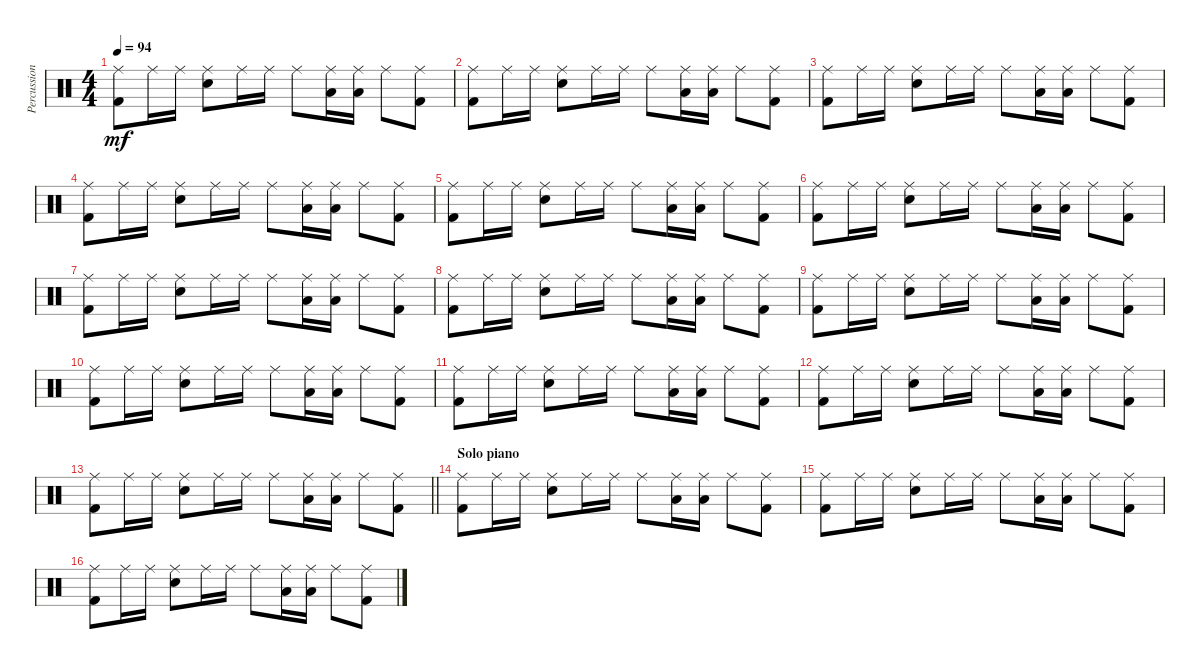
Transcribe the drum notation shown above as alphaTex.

\track ("Percussions" "Percussion") {instrument percussion}
\staff {score}
\articulation defaults
\ts (4 4)
\tempo 94
\clef neutral
\ks c
("Kick (hit) 2" "Ride (middle)").8{dy mf} "Ride (middle)".16 "Ride (middle)".16 ("Electric Snare (hit)" "Ride (middle)").8 "Ride (middle)".16 "Ride (middle)".16 "Ride (middle)".8 ("Low Tom (hit)" "Ride (middle)").16 ("Low Floor Tom (hit)" "Ride (middle)").16 "Ride (middle)".8 ("Kick (hit) 2" "Ride (middle)").8 |
("Kick (hit) 2" "Ride (middle)").8 "Ride (middle)".16 "Ride (middle)".16 ("Electric Snare (hit)" "Ride (middle)").8 "Ride (middle)".16 "Ride (middle)".16 "Ride (middle)".8 ("Low Tom (hit)" "Ride (middle)").16 ("Low Floor Tom (hit)" "Ride (middle)").16 "Ride (middle)".8 ("Kick (hit) 2" "Ride (middle)").8 |
("Kick (hit) 2" "Ride (middle)").8 "Ride (middle)".16 "Ride (middle)".16 ("Electric Snare (hit)" "Ride (middle)").8 "Ride (middle)".16 "Ride (middle)".16 "Ride (middle)".8 ("Low Tom (hit)" "Ride (middle)").16 ("Low Floor Tom (hit)" "Ride (middle)").16 "Ride (middle)".8 ("Kick (hit) 2" "Ride (middle)").8 |
("Kick (hit) 2" "Ride (middle)").8 "Ride (middle)".16 "Ride (middle)".16 ("Electric Snare (hit)" "Ride (middle)").8 "Ride (middle)".16 "Ride (middle)".16 "Ride (middle)".8 ("Low Tom (hit)" "Ride (middle)").16 ("Low Floor Tom (hit)" "Ride (middle)").16 "Ride (middle)".8 ("Kick (hit) 2" "Ride (middle)").8 |
("Kick (hit) 2" "Ride (middle)").8 "Ride (middle)".16 "Ride (middle)".16 ("Electric Snare (hit)" "Ride (middle)").8 "Ride (middle)".16 "Ride (middle)".16 "Ride (middle)".8 ("Low Tom (hit)" "Ride (middle)").16 ("Low Floor Tom (hit)" "Ride (middle)").16 "Ride (middle)".8 ("Kick (hit) 2" "Ride (middle)").8 |
("Kick (hit) 2" "Ride (middle)").8 "Ride (middle)".16 "Ride (middle)".16 ("Electric Snare (hit)" "Ride (middle)").8 "Ride (middle)".16 "Ride (middle)".16 "Ride (middle)".8 ("Low Tom (hit)" "Ride (middle)").16 ("Low Floor Tom (hit)" "Ride (middle)").16 "Ride (middle)".8 ("Kick (hit) 2" "Ride (middle)").8 |
("Kick (hit) 2" "Ride (middle)").8 "Ride (middle)".16 "Ride (middle)".16 ("Electric Snare (hit)" "Ride (middle)").8 "Ride (middle)".16 "Ride (middle)".16 "Ride (middle)".8 ("Low Tom (hit)" "Ride (middle)").16 ("Low Floor Tom (hit)" "Ride (middle)").16 "Ride (middle)".8 ("Kick (hit) 2" "Ride (middle)").8 |
("Kick (hit) 2" "Ride (middle)").8 "Ride (middle)".16 "Ride (middle)".16 ("Electric Snare (hit)" "Ride (middle)").8 "Ride (middle)".16 "Ride (middle)".16 "Ride (middle)".8 ("Low Tom (hit)" "Ride (middle)").16 ("Low Floor Tom (hit)" "Ride (middle)").16 "Ride (middle)".8 ("Kick (hit) 2" "Ride (middle)").8 |
("Kick (hit) 2" "Ride (middle)").8 "Ride (middle)".16 "Ride (middle)".16 ("Electric Snare (hit)" "Ride (middle)").8 "Ride (middle)".16 "Ride (middle)".16 "Ride (middle)".8 ("Low Tom (hit)" "Ride (middle)").16 ("Low Floor Tom (hit)" "Ride (middle)").16 "Ride (middle)".8 ("Kick (hit) 2" "Ride (middle)").8 |
("Kick (hit) 2" "Ride (middle)").8 "Ride (middle)".16 "Ride (middle)".16 ("Electric Snare (hit)" "Ride (middle)").8 "Ride (middle)".16 "Ride (middle)".16 "Ride (middle)".8 ("Low Tom (hit)" "Ride (middle)").16 ("Low Floor Tom (hit)" "Ride (middle)").16 "Ride (middle)".8 ("Kick (hit) 2" "Ride (middle)").8 |
("Kick (hit) 2" "Ride (middle)").8 "Ride (middle)".16 "Ride (middle)".16 ("Electric Snare (hit)" "Ride (middle)").8 "Ride (middle)".16 "Ride (middle)".16 "Ride (middle)".8 ("Low Tom (hit)" "Ride (middle)").16 ("Low Floor Tom (hit)" "Ride (middle)").16 "Ride (middle)".8 ("Kick (hit) 2" "Ride (middle)").8 |
("Kick (hit) 2" "Ride (middle)").8 "Ride (middle)".16 "Ride (middle)".16 ("Electric Snare (hit)" "Ride (middle)").8 "Ride (middle)".16 "Ride (middle)".16 "Ride (middle)".8 ("Low Tom (hit)" "Ride (middle)").16 ("Low Floor Tom (hit)" "Ride (middle)").16 "Ride (middle)".8 ("Kick (hit) 2" "Ride (middle)").8 |
\barLineRight lightlight
("Kick (hit) 2" "Ride (middle)").8 "Ride (middle)".16 "Ride (middle)".16 ("Electric Snare (hit)" "Ride (middle)").8 "Ride (middle)".16 "Ride (middle)".16 "Ride (middle)".8 ("Low Tom (hit)" "Ride (middle)").16 ("Low Floor Tom (hit)" "Ride (middle)").16 "Ride (middle)".8 ("Kick (hit) 2" "Ride (middle)").8 |
\section ("" "Solo piano")
("Kick (hit) 2" "Ride (middle)").8 "Ride (middle)".16 "Ride (middle)".16 ("Electric Snare (hit)" "Ride (middle)").8 "Ride (middle)".16 "Ride (middle)".16 "Ride (middle)".8 ("Low Tom (hit)" "Ride (middle)").16 ("Low Floor Tom (hit)" "Ride (middle)").16 "Ride (middle)".8 ("Kick (hit) 2" "Ride (middle)").8 |
("Kick (hit) 2" "Ride (middle)").8 "Ride (middle)".16 "Ride (middle)".16 ("Electric Snare (hit)" "Ride (middle)").8 "Ride (middle)".16 "Ride (middle)".16 "Ride (middle)".8 ("Low Tom (hit)" "Ride (middle)").16 ("Low Floor Tom (hit)" "Ride (middle)").16 "Ride (middle)".8 ("Kick (hit) 2" "Ride (middle)").8 |
("Kick (hit) 2" "Ride (middle)").8 "Ride (middle)".16 "Ride (middle)".16 ("Electric Snare (hit)" "Ride (middle)").8 "Ride (middle)".16 "Ride (middle)".16 "Ride (middle)".8 ("Low Tom (hit)" "Ride (middle)").16 ("Low Floor Tom (hit)" "Ride (middle)").16 "Ride (middle)".8 ("Kick (hit) 2" "Ride (middle)").8
